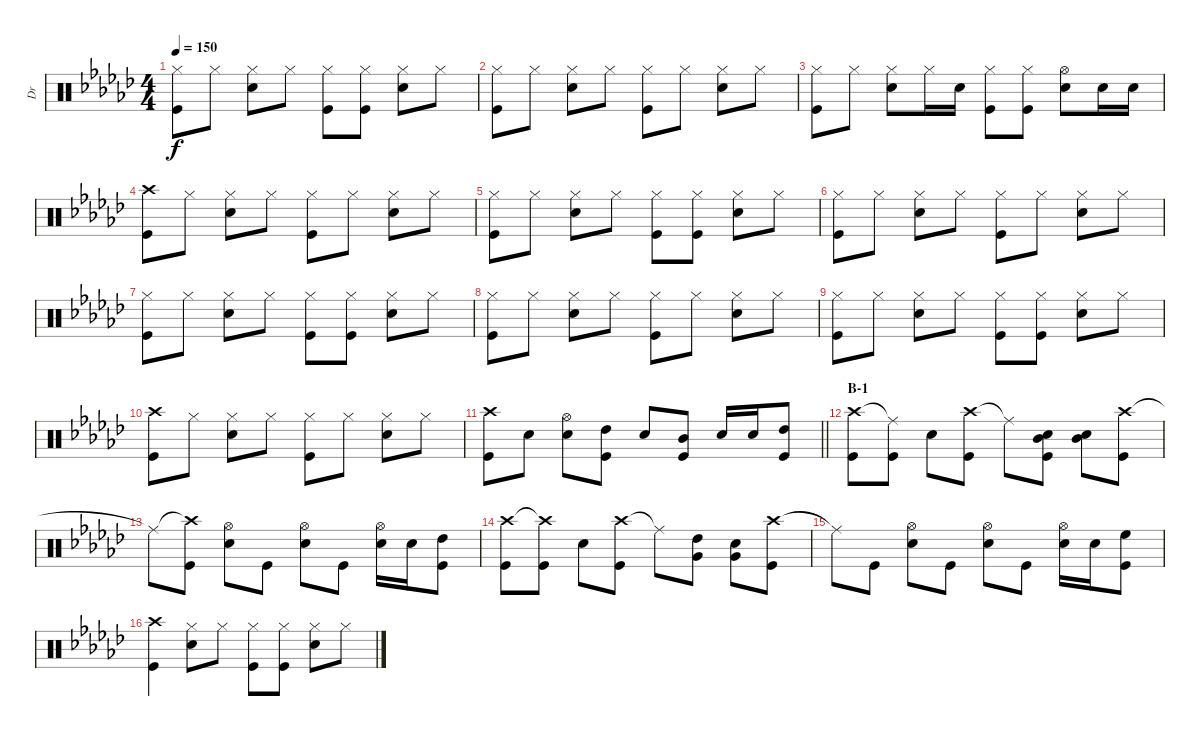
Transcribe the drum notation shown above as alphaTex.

\track ("Dr" "Dr") {instrument percussion}
\staff {score}
\articulation defaults
\ts (4 4)
\tempo 150
\clef neutral
\ks gb
("Hi-Hat (closed)" "Kick (hit)").8{dy f} "Hi-Hat (closed)".8 ("Hi-Hat (closed)" "Electric Snare (hit)").8 "Hi-Hat (closed)".8 ("Hi-Hat (closed)" "Kick (hit)").8 ("Hi-Hat (closed)" "Kick (hit)").8 ("Hi-Hat (closed)" "Electric Snare (hit)").8 "Hi-Hat (closed)".8 |
("Hi-Hat (closed)" "Kick (hit)").8 "Hi-Hat (closed)".8 ("Hi-Hat (closed)" "Electric Snare (hit)").8 "Hi-Hat (closed)".8 ("Hi-Hat (closed)" "Kick (hit)").8 "Hi-Hat (closed)".8 ("Hi-Hat (closed)" "Electric Snare (hit)").8 "Hi-Hat (closed)".8 |
("Hi-Hat (closed)" "Kick (hit)").8 "Hi-Hat (closed)".8 ("Hi-Hat (closed)" "Electric Snare (hit)").8 "Hi-Hat (closed)".16 "Electric Snare (hit)".16 ("Hi-Hat (closed)" "Kick (hit)").8 ("Hi-Hat (closed)" "Kick (hit)").8 ("Hi-Hat (open)" "Electric Snare (hit)").8 "Electric Snare (hit)".16 "Electric Snare (hit)".16 |
("Crash high (hit)" "Kick (hit)").8 "Hi-Hat (closed)".8 ("Hi-Hat (closed)" "Electric Snare (hit)").8 "Hi-Hat (closed)".8 ("Hi-Hat (closed)" "Kick (hit)").8 "Hi-Hat (closed)".8 ("Hi-Hat (closed)" "Electric Snare (hit)").8 "Hi-Hat (closed)".8 |
("Hi-Hat (closed)" "Kick (hit)").8 "Hi-Hat (closed)".8 ("Hi-Hat (closed)" "Electric Snare (hit)").8 "Hi-Hat (closed)".8 ("Hi-Hat (closed)" "Kick (hit)").8 ("Hi-Hat (closed)" "Kick (hit)").8 ("Hi-Hat (closed)" "Electric Snare (hit)").8 "Hi-Hat (closed)".8 |
("Hi-Hat (closed)" "Kick (hit)").8 "Hi-Hat (closed)".8 ("Hi-Hat (closed)" "Electric Snare (hit)").8 "Hi-Hat (closed)".8 ("Hi-Hat (closed)" "Kick (hit)").8 "Hi-Hat (closed)".8 ("Hi-Hat (closed)" "Electric Snare (hit)").8 "Hi-Hat (closed)".8 |
("Hi-Hat (closed)" "Kick (hit)").8 "Hi-Hat (closed)".8 ("Hi-Hat (closed)" "Electric Snare (hit)").8 "Hi-Hat (closed)".8 ("Hi-Hat (closed)" "Kick (hit)").8 ("Hi-Hat (closed)" "Kick (hit)").8 ("Hi-Hat (closed)" "Electric Snare (hit)").8 "Hi-Hat (closed)".8 |
("Hi-Hat (closed)" "Kick (hit)").8 "Hi-Hat (closed)".8 ("Hi-Hat (closed)" "Electric Snare (hit)").8 "Hi-Hat (closed)".8 ("Hi-Hat (closed)" "Kick (hit)").8 "Hi-Hat (closed)".8 ("Hi-Hat (closed)" "Electric Snare (hit)").8 "Hi-Hat (closed)".8 |
("Hi-Hat (closed)" "Kick (hit)").8 "Hi-Hat (closed)".8 ("Hi-Hat (closed)" "Electric Snare (hit)").8 "Hi-Hat (closed)".8 ("Hi-Hat (closed)" "Kick (hit)").8 ("Hi-Hat (closed)" "Kick (hit)").8 ("Hi-Hat (closed)" "Electric Snare (hit)").8 "Hi-Hat (closed)".8 |
("Crash high (hit)" "Kick (hit)").8 "Hi-Hat (closed)".8 ("Hi-Hat (closed)" "Electric Snare (hit)").8 "Hi-Hat (closed)".8 ("Hi-Hat (closed)" "Kick (hit)").8 "Hi-Hat (closed)".8 ("Hi-Hat (closed)" "Electric Snare (hit)").8 "Hi-Hat (closed)".8 |
\barLineRight lightlight
("Crash high (hit)" "Kick (hit)").8 "Electric Snare (hit)".8 ("Hi-Hat (open)" "Electric Snare (hit)").8 ("High Tom (hit)" "Kick (hit)").8 "Electric Snare (hit)".8 ("Mid Tom (hit)" "Kick (hit)").8 "Electric Snare (hit)".16 "Electric Snare (hit)".16 ("High Tom (hit)" "Kick (hit)").8 |
\section ("" "B-1")
("Crash high (hit)" "Kick (hit)").8 ("Ride (middle)"{t} "Kick (hit)").8 "Electric Snare (hit)".8 ("Crash high (hit)" "Kick (hit)").8 "Ride (middle)"{t}.8 ("Mid Tom (hit)" "Electric Snare (hit)" "Kick (hit)").8 ("Mid Tom (hit)" "Electric Snare (hit)").8 ("Crash high (hit)" "Kick (hit)").8 |
"Ride (middle)"{t}.8 ("Crash high (hit)"{t} "Kick (hit)").8 ("Hi-Hat (open)" "Electric Snare (hit)").8 "Kick (hit)".8 ("Hi-Hat (open)" "Electric Snare (hit)").8 "Kick (hit)".8 ("Hi-Hat (open)" "Electric Snare (hit)").16 "Electric Snare (hit)".16 ("High Tom (hit)" "Kick (hit)").8 |
("Crash high (hit)" "Kick (hit)").8 ("Crash high (hit)"{t} "Kick (hit)").8 "Electric Snare (hit)".8 ("Crash high (hit)" "Kick (hit)").8 "Ride (middle)"{t}.8 ("High Tom (hit)" "Very Low Tom (hit)").8 ("Very Low Tom (hit)" "Electric Snare (hit)").8 ("Crash high (hit)" "Kick (hit)").8 |
"Ride (middle)"{t}.8 "Kick (hit)".8 ("Hi-Hat (open)" "Electric Snare (hit)").8 "Kick (hit)".8 ("Hi-Hat (open)" "Electric Snare (hit)").8 "Kick (hit)".8 ("Hi-Hat (open)" "Electric Snare (hit)").16 "Electric Snare (hit)".16 ("High Floor Tom (hit)" "Kick (hit)").8 |
("Crash high (hit)" "Kick (hit)").4 ("Hi-Hat (closed)" "Electric Snare (hit)").8 "Hi-Hat (closed)".8 ("Hi-Hat (closed)" "Kick (hit)").8 ("Hi-Hat (closed)" "Kick (hit)").8 ("Hi-Hat (closed)" "Electric Snare (hit)").8 "Hi-Hat (closed)".8
